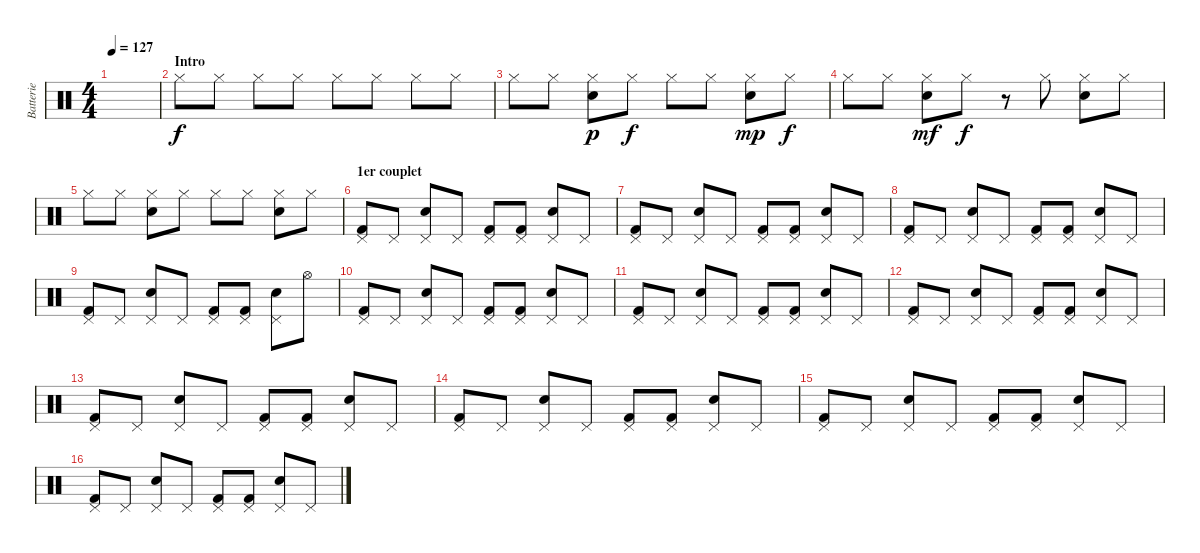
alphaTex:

\track ("Batterie" "Batterie") {instrument percussion}
\staff {score}
\articulation defaults
\ts (4 4)
\tempo 127
\clef neutral
\ks c
|
\section ("" "Intro")
"Hi-Hat (closed)".8 "Hi-Hat (closed)".8 "Hi-Hat (closed)".8 "Hi-Hat (closed)".8 "Hi-Hat (closed)".8 "Hi-Hat (closed)".8 "Hi-Hat (closed)".8 "Hi-Hat (closed)".8 |
"Hi-Hat (closed)".8 "Hi-Hat (closed)".8 ("Hi-Hat (closed)" "Snare (hit) 2").8{dy p} "Hi-Hat (closed)".8{dy f} "Hi-Hat (closed)".8 "Hi-Hat (closed)".8 ("Hi-Hat (closed)" "Snare (hit) 2").8{dy mp} "Hi-Hat (closed)".8{dy f} |
"Hi-Hat (closed)".8 "Hi-Hat (closed)".8 ("Hi-Hat (closed)" "Snare (hit) 2").8{dy mf} "Hi-Hat (closed)".8{dy f} r.8 "Hi-Hat (closed)".8 ("Hi-Hat (closed)" "Snare (hit) 2").8 "Hi-Hat (closed)".8 |
"Hi-Hat (closed)".8 "Hi-Hat (closed)".8 ("Hi-Hat (closed)" "Snare (hit) 2").8 "Hi-Hat (closed)".8 "Hi-Hat (closed)".8 "Hi-Hat (closed)".8 ("Hi-Hat (closed)" "Snare (hit) 2").8 "Hi-Hat (closed)".8 |
\section ("" "1er couplet")
("Pedal Hi-Hat (hit)" "Kick (hit) 2").8 "Pedal Hi-Hat (hit)".8 ("Pedal Hi-Hat (hit)" "Electric Snare (hit)").8 "Pedal Hi-Hat (hit)".8 ("Pedal Hi-Hat (hit)" "Kick (hit) 2").8 ("Pedal Hi-Hat (hit)" "Kick (hit) 2").8 ("Pedal Hi-Hat (hit)" "Electric Snare (hit)").8 "Pedal Hi-Hat (hit)".8 |
("Pedal Hi-Hat (hit)" "Kick (hit) 2").8 "Pedal Hi-Hat (hit)".8 ("Pedal Hi-Hat (hit)" "Electric Snare (hit)").8 "Pedal Hi-Hat (hit)".8 ("Pedal Hi-Hat (hit)" "Kick (hit) 2").8 ("Pedal Hi-Hat (hit)" "Kick (hit) 2").8 ("Pedal Hi-Hat (hit)" "Electric Snare (hit)").8 "Pedal Hi-Hat (hit)".8 |
("Pedal Hi-Hat (hit)" "Kick (hit) 2").8 "Pedal Hi-Hat (hit)".8 ("Pedal Hi-Hat (hit)" "Electric Snare (hit)").8 "Pedal Hi-Hat (hit)".8 ("Pedal Hi-Hat (hit)" "Kick (hit) 2").8 ("Pedal Hi-Hat (hit)" "Kick (hit) 2").8 ("Pedal Hi-Hat (hit)" "Electric Snare (hit)").8 "Pedal Hi-Hat (hit)".8 |
("Pedal Hi-Hat (hit)" "Kick (hit) 2").8 "Pedal Hi-Hat (hit)".8 ("Pedal Hi-Hat (hit)" "Electric Snare (hit)").8 "Pedal Hi-Hat (hit)".8 ("Pedal Hi-Hat (hit)" "Kick (hit) 2").8 ("Pedal Hi-Hat (hit)" "Kick (hit) 2").8 ("Pedal Hi-Hat (hit)" "Electric Snare (hit)").8 "Hi-Hat (open)".8 |
("Pedal Hi-Hat (hit)" "Kick (hit) 2").8 "Pedal Hi-Hat (hit)".8 ("Pedal Hi-Hat (hit)" "Electric Snare (hit)").8 "Pedal Hi-Hat (hit)".8 ("Pedal Hi-Hat (hit)" "Kick (hit) 2").8 ("Pedal Hi-Hat (hit)" "Kick (hit) 2").8 ("Pedal Hi-Hat (hit)" "Electric Snare (hit)").8 "Pedal Hi-Hat (hit)".8 |
("Pedal Hi-Hat (hit)" "Kick (hit) 2").8 "Pedal Hi-Hat (hit)".8 ("Pedal Hi-Hat (hit)" "Electric Snare (hit)").8 "Pedal Hi-Hat (hit)".8 ("Pedal Hi-Hat (hit)" "Kick (hit) 2").8 ("Pedal Hi-Hat (hit)" "Kick (hit) 2").8 ("Pedal Hi-Hat (hit)" "Electric Snare (hit)").8 "Pedal Hi-Hat (hit)".8 |
("Pedal Hi-Hat (hit)" "Kick (hit) 2").8 "Pedal Hi-Hat (hit)".8 ("Pedal Hi-Hat (hit)" "Electric Snare (hit)").8 "Pedal Hi-Hat (hit)".8 ("Pedal Hi-Hat (hit)" "Kick (hit) 2").8 ("Pedal Hi-Hat (hit)" "Kick (hit) 2").8 ("Pedal Hi-Hat (hit)" "Electric Snare (hit)").8 "Pedal Hi-Hat (hit)".8 |
("Pedal Hi-Hat (hit)" "Kick (hit) 2").8 "Pedal Hi-Hat (hit)".8 ("Pedal Hi-Hat (hit)" "Electric Snare (hit)").8 "Pedal Hi-Hat (hit)".8 ("Pedal Hi-Hat (hit)" "Kick (hit) 2").8 ("Pedal Hi-Hat (hit)" "Kick (hit) 2").8 ("Pedal Hi-Hat (hit)" "Electric Snare (hit)").8 "Pedal Hi-Hat (hit)".8 |
("Pedal Hi-Hat (hit)" "Kick (hit) 2").8 "Pedal Hi-Hat (hit)".8 ("Pedal Hi-Hat (hit)" "Electric Snare (hit)").8 "Pedal Hi-Hat (hit)".8 ("Pedal Hi-Hat (hit)" "Kick (hit) 2").8 ("Pedal Hi-Hat (hit)" "Kick (hit) 2").8 ("Pedal Hi-Hat (hit)" "Electric Snare (hit)").8 "Pedal Hi-Hat (hit)".8 |
("Pedal Hi-Hat (hit)" "Kick (hit) 2").8 "Pedal Hi-Hat (hit)".8 ("Pedal Hi-Hat (hit)" "Electric Snare (hit)").8 "Pedal Hi-Hat (hit)".8 ("Pedal Hi-Hat (hit)" "Kick (hit) 2").8 ("Pedal Hi-Hat (hit)" "Kick (hit) 2").8 ("Pedal Hi-Hat (hit)" "Electric Snare (hit)").8 "Pedal Hi-Hat (hit)".8 |
("Pedal Hi-Hat (hit)" "Kick (hit) 2").8 "Pedal Hi-Hat (hit)".8 ("Pedal Hi-Hat (hit)" "Electric Snare (hit)").8 "Pedal Hi-Hat (hit)".8 ("Pedal Hi-Hat (hit)" "Kick (hit) 2").8 ("Pedal Hi-Hat (hit)" "Kick (hit) 2").8 ("Pedal Hi-Hat (hit)" "Electric Snare (hit)").8 "Pedal Hi-Hat (hit)".8
